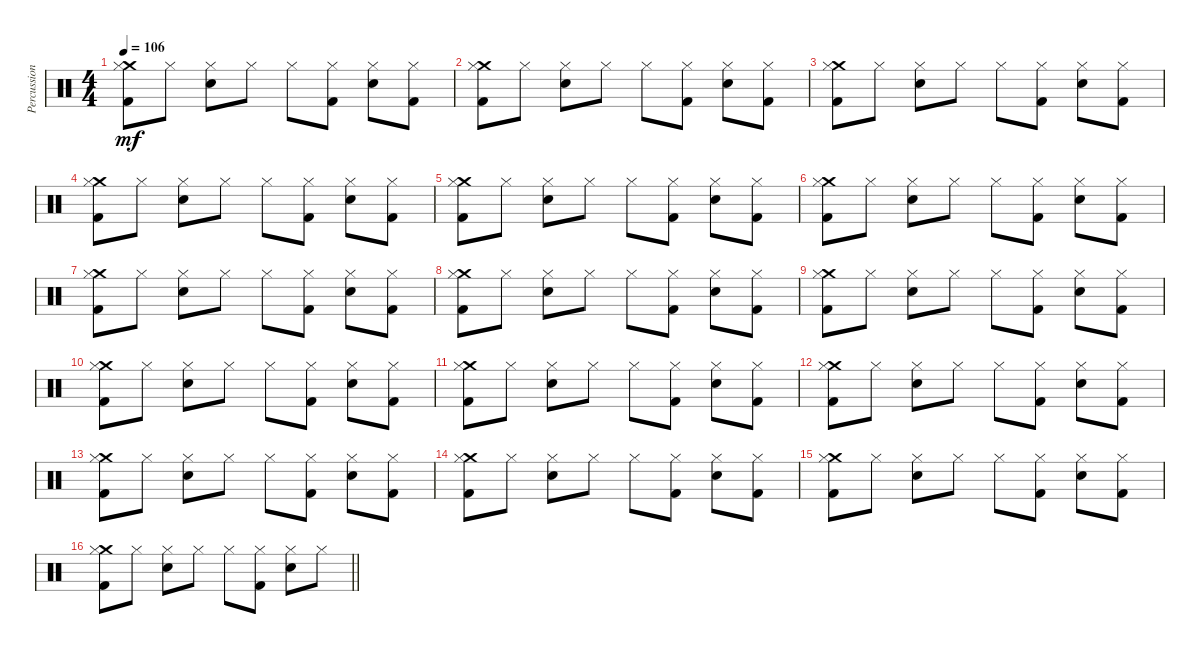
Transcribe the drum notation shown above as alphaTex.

\track ("Percussion" "Percussion") {instrument percussion}
\staff {score}
\articulation defaults
\ts (4 4)
\tempo 106
\clef neutral
\ks c
("Crash medium (hit)" "Hi-Hat (closed)" "Kick (hit) 2").8{dy mf} "Hi-Hat (closed)".8 ("Hi-Hat (closed)" "Electric Snare (hit)").8 "Hi-Hat (closed)".8 "Hi-Hat (closed)".8 ("Hi-Hat (closed)" "Kick (hit) 2").8 ("Hi-Hat (closed)" "Electric Snare (hit)").8 ("Hi-Hat (closed)" "Kick (hit) 2").8 |
("Crash medium (hit)" "Hi-Hat (closed)" "Kick (hit) 2").8 "Hi-Hat (closed)".8 ("Hi-Hat (closed)" "Electric Snare (hit)").8 "Hi-Hat (closed)".8 "Hi-Hat (closed)".8 ("Hi-Hat (closed)" "Kick (hit) 2").8 ("Hi-Hat (closed)" "Electric Snare (hit)").8 ("Hi-Hat (closed)" "Kick (hit) 2").8 |
("Crash medium (hit)" "Hi-Hat (closed)" "Kick (hit) 2").8 "Hi-Hat (closed)".8 ("Hi-Hat (closed)" "Electric Snare (hit)").8 "Hi-Hat (closed)".8 "Hi-Hat (closed)".8 ("Hi-Hat (closed)" "Kick (hit) 2").8 ("Hi-Hat (closed)" "Electric Snare (hit)").8 ("Hi-Hat (closed)" "Kick (hit) 2").8 |
("Crash medium (hit)" "Hi-Hat (closed)" "Kick (hit) 2").8 "Hi-Hat (closed)".8 ("Hi-Hat (closed)" "Electric Snare (hit)").8 "Hi-Hat (closed)".8 "Hi-Hat (closed)".8 ("Hi-Hat (closed)" "Kick (hit) 2").8 ("Hi-Hat (closed)" "Electric Snare (hit)").8 ("Hi-Hat (closed)" "Kick (hit) 2").8 |
("Crash medium (hit)" "Hi-Hat (closed)" "Kick (hit) 2").8 "Hi-Hat (closed)".8 ("Hi-Hat (closed)" "Electric Snare (hit)").8 "Hi-Hat (closed)".8 "Hi-Hat (closed)".8 ("Hi-Hat (closed)" "Kick (hit) 2").8 ("Hi-Hat (closed)" "Electric Snare (hit)").8 ("Hi-Hat (closed)" "Kick (hit) 2").8 |
("Crash medium (hit)" "Hi-Hat (closed)" "Kick (hit) 2").8 "Hi-Hat (closed)".8 ("Hi-Hat (closed)" "Electric Snare (hit)").8 "Hi-Hat (closed)".8 "Hi-Hat (closed)".8 ("Hi-Hat (closed)" "Kick (hit) 2").8 ("Hi-Hat (closed)" "Electric Snare (hit)").8 ("Hi-Hat (closed)" "Kick (hit) 2").8 |
("Crash medium (hit)" "Hi-Hat (closed)" "Kick (hit) 2").8 "Hi-Hat (closed)".8 ("Hi-Hat (closed)" "Electric Snare (hit)").8 "Hi-Hat (closed)".8 "Hi-Hat (closed)".8 ("Hi-Hat (closed)" "Kick (hit) 2").8 ("Hi-Hat (closed)" "Electric Snare (hit)").8 ("Hi-Hat (closed)" "Kick (hit) 2").8 |
("Crash medium (hit)" "Hi-Hat (closed)" "Kick (hit) 2").8 "Hi-Hat (closed)".8 ("Hi-Hat (closed)" "Electric Snare (hit)").8 "Hi-Hat (closed)".8 "Hi-Hat (closed)".8 ("Hi-Hat (closed)" "Kick (hit) 2").8 ("Hi-Hat (closed)" "Electric Snare (hit)").8 ("Hi-Hat (closed)" "Kick (hit) 2").8 |
("Crash medium (hit)" "Hi-Hat (closed)" "Kick (hit) 2").8 "Hi-Hat (closed)".8 ("Hi-Hat (closed)" "Electric Snare (hit)").8 "Hi-Hat (closed)".8 "Hi-Hat (closed)".8 ("Hi-Hat (closed)" "Kick (hit) 2").8 ("Hi-Hat (closed)" "Electric Snare (hit)").8 ("Hi-Hat (closed)" "Kick (hit) 2").8 |
("Crash medium (hit)" "Hi-Hat (closed)" "Kick (hit) 2").8 "Hi-Hat (closed)".8 ("Hi-Hat (closed)" "Electric Snare (hit)").8 "Hi-Hat (closed)".8 "Hi-Hat (closed)".8 ("Hi-Hat (closed)" "Kick (hit) 2").8 ("Hi-Hat (closed)" "Electric Snare (hit)").8 ("Hi-Hat (closed)" "Kick (hit) 2").8 |
("Crash medium (hit)" "Hi-Hat (closed)" "Kick (hit) 2").8 "Hi-Hat (closed)".8 ("Hi-Hat (closed)" "Electric Snare (hit)").8 "Hi-Hat (closed)".8 "Hi-Hat (closed)".8 ("Hi-Hat (closed)" "Kick (hit) 2").8 ("Hi-Hat (closed)" "Electric Snare (hit)").8 ("Hi-Hat (closed)" "Kick (hit) 2").8 |
("Crash medium (hit)" "Hi-Hat (closed)" "Kick (hit) 2").8 "Hi-Hat (closed)".8 ("Hi-Hat (closed)" "Electric Snare (hit)").8 "Hi-Hat (closed)".8 "Hi-Hat (closed)".8 ("Hi-Hat (closed)" "Kick (hit) 2").8 ("Hi-Hat (closed)" "Electric Snare (hit)").8 ("Hi-Hat (closed)" "Kick (hit) 2").8 |
("Crash medium (hit)" "Hi-Hat (closed)" "Kick (hit) 2").8 "Hi-Hat (closed)".8 ("Hi-Hat (closed)" "Electric Snare (hit)").8 "Hi-Hat (closed)".8 "Hi-Hat (closed)".8 ("Hi-Hat (closed)" "Kick (hit) 2").8 ("Hi-Hat (closed)" "Electric Snare (hit)").8 ("Hi-Hat (closed)" "Kick (hit) 2").8 |
("Crash medium (hit)" "Hi-Hat (closed)" "Kick (hit) 2").8 "Hi-Hat (closed)".8 ("Hi-Hat (closed)" "Electric Snare (hit)").8 "Hi-Hat (closed)".8 "Hi-Hat (closed)".8 ("Hi-Hat (closed)" "Kick (hit) 2").8 ("Hi-Hat (closed)" "Electric Snare (hit)").8 ("Hi-Hat (closed)" "Kick (hit) 2").8 |
("Crash medium (hit)" "Hi-Hat (closed)" "Kick (hit) 2").8 "Hi-Hat (closed)".8 ("Hi-Hat (closed)" "Electric Snare (hit)").8 "Hi-Hat (closed)".8 "Hi-Hat (closed)".8 ("Hi-Hat (closed)" "Kick (hit) 2").8 ("Hi-Hat (closed)" "Electric Snare (hit)").8 ("Hi-Hat (closed)" "Kick (hit) 2").8 |
\barLineRight lightlight
("Crash medium (hit)" "Hi-Hat (closed)" "Kick (hit) 2").8 "Hi-Hat (closed)".8 ("Hi-Hat (closed)" "Electric Snare (hit)").8 "Hi-Hat (closed)".8 "Hi-Hat (closed)".8 ("Hi-Hat (closed)" "Kick (hit) 2").8 ("Hi-Hat (closed)" "Electric Snare (hit)").8 "Hi-Hat (closed)".8
